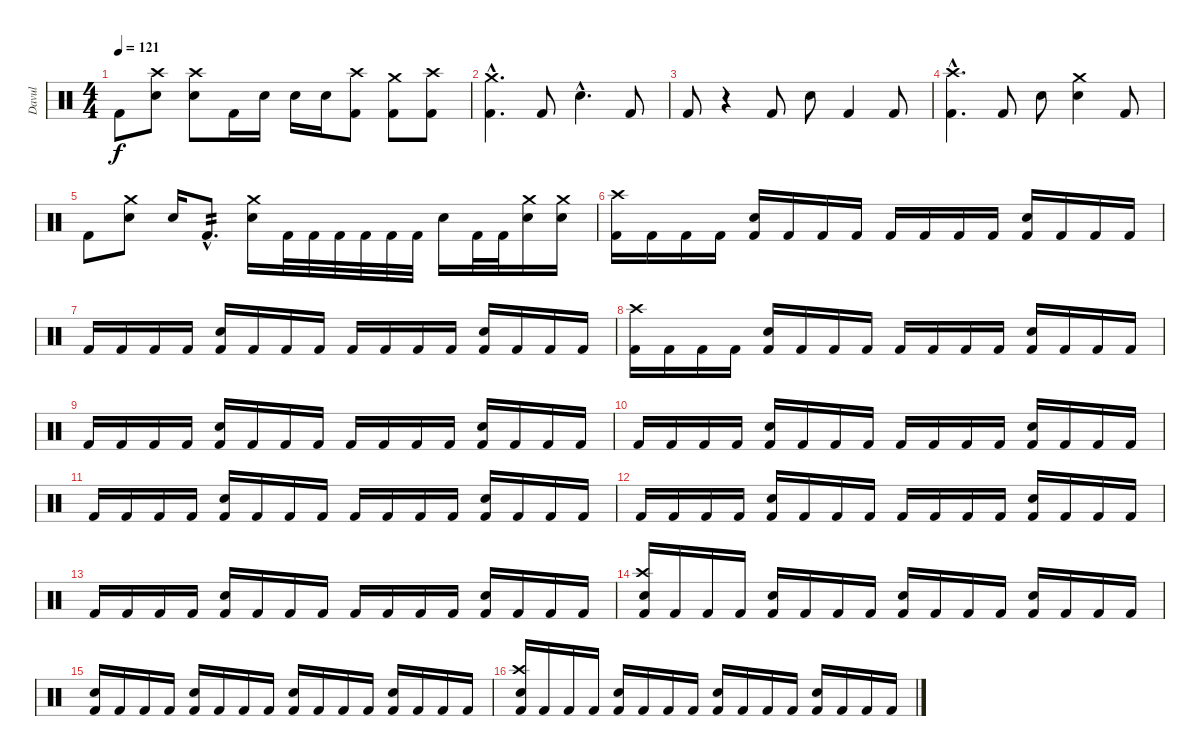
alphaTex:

\track ("Davul" "Davul") {instrument percussion}
\staff {score}
\articulation defaults
\ts (4 4)
\tempo 121
\clef neutral
\ks c "Kick (hit) 2".8{dy f}
("Crash high (hit)" "Electric Snare (hit)").8 ("Crash high (hit)" "Electric Snare (hit)").8 "Kick (hit) 2".16 "Electric Snare (hit)".16 "Electric Snare (hit)".16 "Electric Snare (hit)".16 ("Crash high (hit)" "Kick (hit) 2").8 ("Crash medium (hit)" "Kick (hit) 2").8 ("Crash high (hit)" "Kick (hit) 2").8 |
("Crash medium (hit)"{hac} "Kick (hit) 2"{hac}).4{d} "Kick (hit) 2".8 "Electric Snare (hit)"{hac}.4{d} "Kick (hit) 2".8 |
"Kick (hit) 2".8 r.4 "Kick (hit) 2".8 "Electric Snare (hit)".8 "Kick (hit) 2".4 "Kick (hit) 2".8 |
("Crash high (hit)"{hac} "Kick (hit) 2"{hac}).4{d} "Kick (hit) 2".8 "Electric Snare (hit)".8 ("Crash medium (hit)" "Electric Snare (hit)").4 "Kick (hit) 2".8 |
"Kick (hit) 2".8 ("Crash medium (hit)" "Electric Snare (hit)").8 "Electric Snare (hit)".16 "Kick (hit) 2"{hac}.8{d tp 2} ("Crash medium (hit)" "Electric Snare (hit)").16 "Kick (hit) 2".32 "Kick (hit) 2".32 "Kick (hit) 2".32 "Kick (hit) 2".32 "Kick (hit) 2".32 "Kick (hit) 2".32 "Electric Snare (hit)".16 "Kick (hit) 2".32 "Kick (hit) 2".32 ("Crash medium (hit)" "Electric Snare (hit)").16 ("Crash medium (hit)" "Electric Snare (hit)").16 |
\section ("" "")
("Crash high (hit)" "Kick (hit) 2").16 "Kick (hit) 2".16 "Kick (hit) 2".16 "Kick (hit) 2".16 ("Electric Snare (hit)" "Kick (hit) 2").16 "Kick (hit) 2".16 "Kick (hit) 2".16 "Kick (hit) 2".16 "Kick (hit) 2".16 "Kick (hit) 2".16 "Kick (hit) 2".16 "Kick (hit) 2".16 ("Electric Snare (hit)" "Kick (hit) 2").16 "Kick (hit) 2".16 "Kick (hit) 2".16 "Kick (hit) 2".16 |
"Kick (hit) 2".16 "Kick (hit) 2".16 "Kick (hit) 2".16 "Kick (hit) 2".16 ("Electric Snare (hit)" "Kick (hit) 2").16 "Kick (hit) 2".16 "Kick (hit) 2".16 "Kick (hit) 2".16 "Kick (hit) 2".16 "Kick (hit) 2".16 "Kick (hit) 2".16 "Kick (hit) 2".16 ("Electric Snare (hit)" "Kick (hit) 2").16 "Kick (hit) 2".16 "Kick (hit) 2".16 "Kick (hit) 2".16 |
("Crash high (hit)" "Kick (hit) 2").16 "Kick (hit) 2".16 "Kick (hit) 2".16 "Kick (hit) 2".16 ("Electric Snare (hit)" "Kick (hit) 2").16 "Kick (hit) 2".16 "Kick (hit) 2".16 "Kick (hit) 2".16 "Kick (hit) 2".16 "Kick (hit) 2".16 "Kick (hit) 2".16 "Kick (hit) 2".16 ("Electric Snare (hit)" "Kick (hit) 2").16 "Kick (hit) 2".16 "Kick (hit) 2".16 "Kick (hit) 2".16 |
"Kick (hit) 2".16 "Kick (hit) 2".16 "Kick (hit) 2".16 "Kick (hit) 2".16 ("Electric Snare (hit)" "Kick (hit) 2").16 "Kick (hit) 2".16 "Kick (hit) 2".16 "Kick (hit) 2".16 "Kick (hit) 2".16 "Kick (hit) 2".16 "Kick (hit) 2".16 "Kick (hit) 2".16 ("Electric Snare (hit)" "Kick (hit) 2").16 "Kick (hit) 2".16 "Kick (hit) 2".16 "Kick (hit) 2".16 |
"Kick (hit) 2".16 "Kick (hit) 2".16 "Kick (hit) 2".16 "Kick (hit) 2".16 ("Electric Snare (hit)" "Kick (hit) 2").16 "Kick (hit) 2".16 "Kick (hit) 2".16 "Kick (hit) 2".16 "Kick (hit) 2".16 "Kick (hit) 2".16 "Kick (hit) 2".16 "Kick (hit) 2".16 ("Electric Snare (hit)" "Kick (hit) 2").16 "Kick (hit) 2".16 "Kick (hit) 2".16 "Kick (hit) 2".16 |
"Kick (hit) 2".16 "Kick (hit) 2".16 "Kick (hit) 2".16 "Kick (hit) 2".16 ("Electric Snare (hit)" "Kick (hit) 2").16 "Kick (hit) 2".16 "Kick (hit) 2".16 "Kick (hit) 2".16 "Kick (hit) 2".16 "Kick (hit) 2".16 "Kick (hit) 2".16 "Kick (hit) 2".16 ("Electric Snare (hit)" "Kick (hit) 2").16 "Kick (hit) 2".16 "Kick (hit) 2".16 "Kick (hit) 2".16 |
"Kick (hit) 2".16 "Kick (hit) 2".16 "Kick (hit) 2".16 "Kick (hit) 2".16 ("Electric Snare (hit)" "Kick (hit) 2").16 "Kick (hit) 2".16 "Kick (hit) 2".16 "Kick (hit) 2".16 "Kick (hit) 2".16 "Kick (hit) 2".16 "Kick (hit) 2".16 "Kick (hit) 2".16 ("Electric Snare (hit)" "Kick (hit) 2").16 "Kick (hit) 2".16 "Kick (hit) 2".16 "Kick (hit) 2".16 |
"Kick (hit) 2".16 "Kick (hit) 2".16 "Kick (hit) 2".16 "Kick (hit) 2".16 ("Electric Snare (hit)" "Kick (hit) 2").16 "Kick (hit) 2".16 "Kick (hit) 2".16 "Kick (hit) 2".16 "Kick (hit) 2".16 "Kick (hit) 2".16 "Kick (hit) 2".16 "Kick (hit) 2".16 ("Electric Snare (hit)" "Kick (hit) 2").16 "Kick (hit) 2".16 "Kick (hit) 2".16 "Kick (hit) 2".16 |
("Crash high (hit)" "Electric Snare (hit)" "Kick (hit) 2").16 "Kick (hit) 2".16 "Kick (hit) 2".16 "Kick (hit) 2".16 ("Electric Snare (hit)" "Kick (hit) 2").16 "Kick (hit) 2".16 "Kick (hit) 2".16 "Kick (hit) 2".16 ("Electric Snare (hit)" "Kick (hit) 2").16 "Kick (hit) 2".16 "Kick (hit) 2".16 "Kick (hit) 2".16 ("Electric Snare (hit)" "Kick (hit) 2").16 "Kick (hit) 2".16 "Kick (hit) 2".16 "Kick (hit) 2".16 |
("Electric Snare (hit)" "Kick (hit) 2").16 "Kick (hit) 2".16 "Kick (hit) 2".16 "Kick (hit) 2".16 ("Electric Snare (hit)" "Kick (hit) 2").16 "Kick (hit) 2".16 "Kick (hit) 2".16 "Kick (hit) 2".16 ("Electric Snare (hit)" "Kick (hit) 2").16 "Kick (hit) 2".16 "Kick (hit) 2".16 "Kick (hit) 2".16 ("Electric Snare (hit)" "Kick (hit) 2").16 "Kick (hit) 2".16 "Kick (hit) 2".16 "Kick (hit) 2".16 |
("Crash high (hit)" "Electric Snare (hit)" "Kick (hit) 2").16 "Kick (hit) 2".16 "Kick (hit) 2".16 "Kick (hit) 2".16 ("Electric Snare (hit)" "Kick (hit) 2").16 "Kick (hit) 2".16 "Kick (hit) 2".16 "Kick (hit) 2".16 ("Electric Snare (hit)" "Kick (hit) 2").16 "Kick (hit) 2".16 "Kick (hit) 2".16 "Kick (hit) 2".16 ("Electric Snare (hit)" "Kick (hit) 2").16 "Kick (hit) 2".16 "Kick (hit) 2".16 "Kick (hit) 2".16
